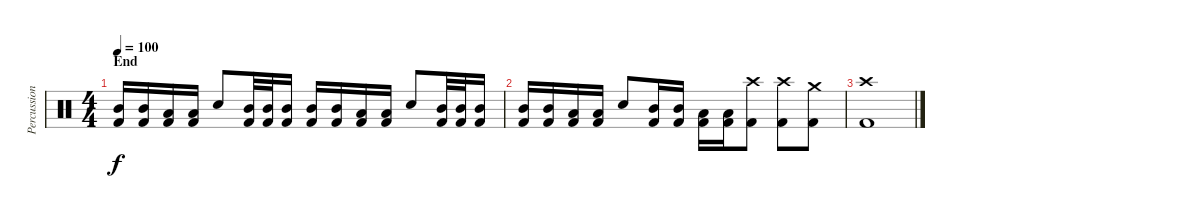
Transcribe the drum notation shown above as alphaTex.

\track ("Percussions" "Percussion") {instrument percussion}
\staff {score}
\articulation defaults
\ts (4 4)
\section ("" "End")
\tempo 100
\clef neutral
\ks c
("Kick (hit) 2" "Mid Tom (hit)").16{dy f} ("Kick (hit) 2" "Mid Tom (hit)").16 ("Kick (hit) 2" "Low Tom (hit)").16 ("Kick (hit) 2" "Low Tom (hit)").16 "Snare (hit) 2".8 ("Kick (hit) 2" "Mid Tom (hit)").32 ("Kick (hit) 2" "Mid Tom (hit)").32 ("Kick (hit) 2" "Mid Tom (hit)").16 ("Kick (hit) 2" "Mid Tom (hit)").16 ("Kick (hit) 2" "Mid Tom (hit)").16 ("Kick (hit) 2" "Low Tom (hit)").16 ("Kick (hit) 2" "Low Tom (hit)").16 "Snare (hit) 2".8 ("Kick (hit) 2" "Mid Tom (hit)").32 ("Kick (hit) 2" "Mid Tom (hit)").32 ("Kick (hit) 2" "Mid Tom (hit)").16 |
("Kick (hit) 2" "Mid Tom (hit)").16 ("Kick (hit) 2" "Mid Tom (hit)").16 ("Kick (hit) 2" "Low Tom (hit)").16 ("Kick (hit) 2" "Low Tom (hit)").16 "Snare (hit) 2".8 ("Kick (hit) 2" "Mid Tom (hit)").16 ("Kick (hit) 2" "Mid Tom (hit)").16 ("Kick (hit) 2" "Low Tom (hit)").16 ("Kick (hit) 2" "Low Tom (hit)").16 ("Crash high (hit)" "Kick (hit) 2").8 ("Kick (hit) 2" "Crash high (hit)").8 ("Kick (hit) 2" "Crash medium (hit)").8 |
("Crash high (hit)" "Kick (hit) 2").1
